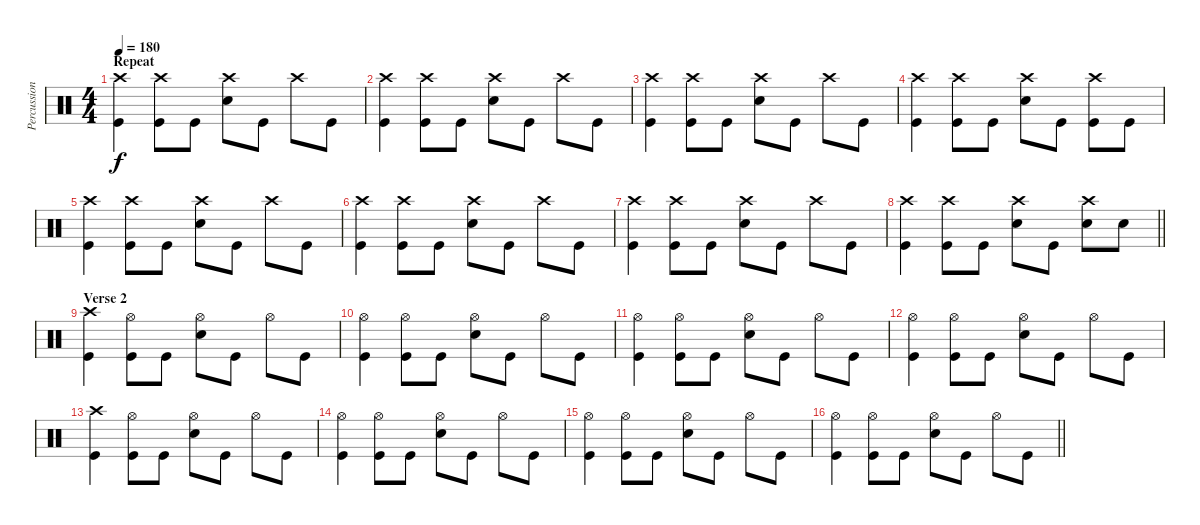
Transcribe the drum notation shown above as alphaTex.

\track ("Percussion" "Percussion") {instrument percussion}
\staff {score}
\articulation defaults
\ts (4 4)
\section ("" "Repeat")
\tempo 180
\clef neutral
\ks c
("Crash high (hit)" "Kick (hit)").4{dy f} ("Crash high (hit)" "Kick (hit)").8 "Kick (hit)".8 ("Snare (hit) 2" "Crash high (hit)").8 "Kick (hit)".8 "Crash high (hit)".8 "Kick (hit)".8 |
("Crash high (hit)" "Kick (hit)").4 ("Crash high (hit)" "Kick (hit)").8 "Kick (hit)".8 ("Snare (hit) 2" "Crash high (hit)").8 "Kick (hit)".8 "Crash high (hit)".8 "Kick (hit)".8 |
("Crash high (hit)" "Kick (hit)").4 ("Crash high (hit)" "Kick (hit)").8 "Kick (hit)".8 ("Snare (hit) 2" "Crash high (hit)").8 "Kick (hit)".8 "Crash high (hit)".8 "Kick (hit)".8 |
("Crash high (hit)" "Kick (hit)").4 ("Crash high (hit)" "Kick (hit)").8 "Kick (hit)".8 ("Snare (hit) 2" "Crash high (hit)").8 "Kick (hit)".8 ("Crash high (hit)" "Kick (hit)").8 "Kick (hit)".8 |
("Crash high (hit)" "Kick (hit)").4 ("Crash high (hit)" "Kick (hit)").8 "Kick (hit)".8 ("Snare (hit) 2" "Crash high (hit)").8 "Kick (hit)".8 "Crash high (hit)".8 "Kick (hit)".8 |
("Crash high (hit)" "Kick (hit)").4 ("Crash high (hit)" "Kick (hit)").8 "Kick (hit)".8 ("Snare (hit) 2" "Crash high (hit)").8 "Kick (hit)".8 "Crash high (hit)".8 "Kick (hit)".8 |
("Crash high (hit)" "Kick (hit)").4 ("Crash high (hit)" "Kick (hit)").8 "Kick (hit)".8 ("Snare (hit) 2" "Crash high (hit)").8 "Kick (hit)".8 "Crash high (hit)".8 "Kick (hit)".8 |
\barLineRight lightlight
("Crash high (hit)" "Kick (hit)").4 ("Crash high (hit)" "Kick (hit)").8 "Kick (hit)".8 ("Snare (hit) 2" "Crash high (hit)").8 "Kick (hit)".8 ("Crash high (hit)" "Snare (hit) 2").8 "Snare (hit) 2".8 |
\section ("" "Verse 2")
("Crash high (hit)" "Kick (hit)").4 ("Hi-Hat (open)" "Kick (hit)").8 "Kick (hit)".8 ("Snare (hit) 2" "Hi-Hat (open)").8 "Kick (hit)".8 "Hi-Hat (open)".8 "Kick (hit)".8 |
("Hi-Hat (open)" "Kick (hit)").4 ("Hi-Hat (open)" "Kick (hit)").8 "Kick (hit)".8 ("Snare (hit) 2" "Hi-Hat (open)").8 "Kick (hit)".8 "Hi-Hat (open)".8 "Kick (hit)".8 |
("Hi-Hat (open)" "Kick (hit)").4 ("Hi-Hat (open)" "Kick (hit)").8 "Kick (hit)".8 ("Snare (hit) 2" "Hi-Hat (open)").8 "Kick (hit)".8 "Hi-Hat (open)".8 "Kick (hit)".8 |
("Hi-Hat (open)" "Kick (hit)").4 ("Hi-Hat (open)" "Kick (hit)").8 "Kick (hit)".8 ("Snare (hit) 2" "Hi-Hat (open)").8 "Kick (hit)".8 "Hi-Hat (open)".8 "Kick (hit)".8 |
("Crash high (hit)" "Kick (hit)").4 ("Hi-Hat (open)" "Kick (hit)").8 "Kick (hit)".8 ("Snare (hit) 2" "Hi-Hat (open)").8 "Kick (hit)".8 "Hi-Hat (open)".8 "Kick (hit)".8 |
("Hi-Hat (open)" "Kick (hit)").4 ("Hi-Hat (open)" "Kick (hit)").8 "Kick (hit)".8 ("Snare (hit) 2" "Hi-Hat (open)").8 "Kick (hit)".8 "Hi-Hat (open)".8 "Kick (hit)".8 |
("Hi-Hat (open)" "Kick (hit)").4 ("Hi-Hat (open)" "Kick (hit)").8 "Kick (hit)".8 ("Snare (hit) 2" "Hi-Hat (open)").8 "Kick (hit)".8 "Hi-Hat (open)".8 "Kick (hit)".8 |
\barLineRight lightlight
("Hi-Hat (open)" "Kick (hit)").4 ("Hi-Hat (open)" "Kick (hit)").8 "Kick (hit)".8 ("Snare (hit) 2" "Hi-Hat (open)").8 "Kick (hit)".8 "Hi-Hat (open)".8 "Kick (hit)".8
